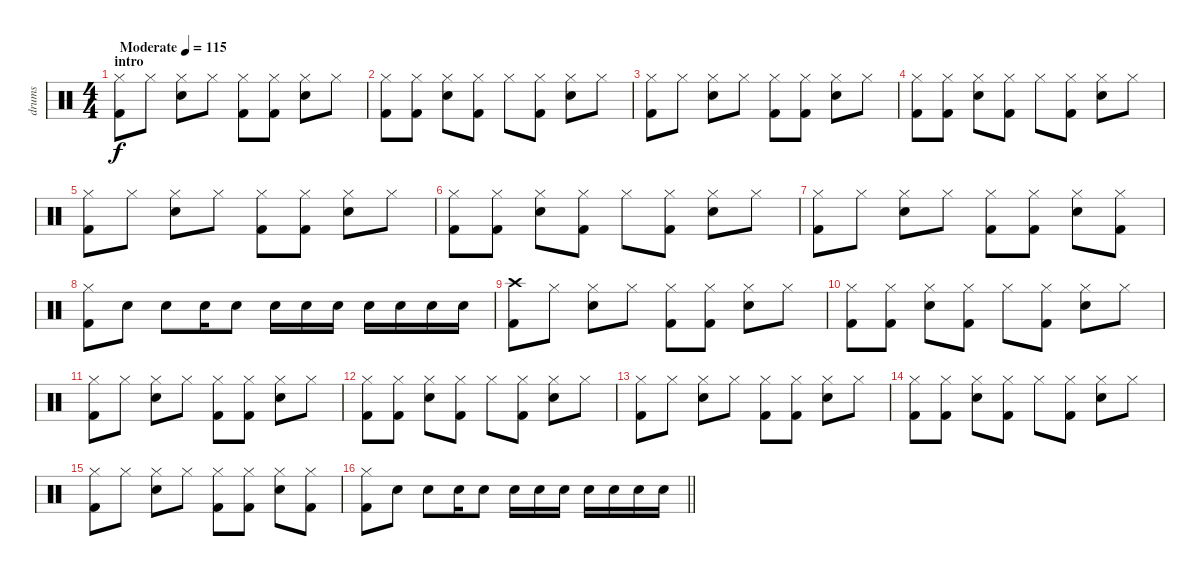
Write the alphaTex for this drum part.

\track ("drums" "drums") {instrument percussion}
\staff {score}
\articulation defaults
\ts (4 4)
\section ("" "intro")
\tempo (115 "Moderate")
\clef neutral
\ks c
("Hi-Hat (closed)" "Kick (hit) 2").8{dy f} "Hi-Hat (closed)".8 ("Hi-Hat (closed)" "Electric Snare (hit)").8 "Hi-Hat (closed)".8 ("Hi-Hat (closed)" "Kick (hit) 2").8 ("Hi-Hat (closed)" "Kick (hit) 2").8 ("Hi-Hat (closed)" "Electric Snare (hit)").8 "Hi-Hat (closed)".8 |
("Hi-Hat (closed)" "Kick (hit) 2").8 ("Hi-Hat (closed)" "Kick (hit) 2").8 ("Hi-Hat (closed)" "Electric Snare (hit)").8 ("Hi-Hat (closed)" "Kick (hit) 2").8 "Hi-Hat (closed)".8 ("Hi-Hat (closed)" "Kick (hit) 2").8 ("Hi-Hat (closed)" "Electric Snare (hit)").8 "Hi-Hat (closed)".8 |
("Hi-Hat (closed)" "Kick (hit) 2").8 "Hi-Hat (closed)".8 ("Hi-Hat (closed)" "Electric Snare (hit)").8 "Hi-Hat (closed)".8 ("Hi-Hat (closed)" "Kick (hit) 2").8 ("Hi-Hat (closed)" "Kick (hit) 2").8 ("Hi-Hat (closed)" "Electric Snare (hit)").8 "Hi-Hat (closed)".8 |
("Hi-Hat (closed)" "Kick (hit) 2").8 ("Hi-Hat (closed)" "Kick (hit) 2").8 ("Hi-Hat (closed)" "Electric Snare (hit)").8 ("Hi-Hat (closed)" "Kick (hit) 2").8 "Hi-Hat (closed)".8 ("Hi-Hat (closed)" "Kick (hit) 2").8 ("Hi-Hat (closed)" "Electric Snare (hit)").8 "Hi-Hat (closed)".8 |
("Hi-Hat (closed)" "Kick (hit) 2").8 "Hi-Hat (closed)".8 ("Hi-Hat (closed)" "Electric Snare (hit)").8 "Hi-Hat (closed)".8 ("Hi-Hat (closed)" "Kick (hit) 2").8 ("Hi-Hat (closed)" "Kick (hit) 2").8 ("Hi-Hat (closed)" "Electric Snare (hit)").8 "Hi-Hat (closed)".8 |
("Hi-Hat (closed)" "Kick (hit) 2").8 ("Hi-Hat (closed)" "Kick (hit) 2").8 ("Hi-Hat (closed)" "Electric Snare (hit)").8 ("Hi-Hat (closed)" "Kick (hit) 2").8 "Hi-Hat (closed)".8 ("Hi-Hat (closed)" "Kick (hit) 2").8 ("Hi-Hat (closed)" "Electric Snare (hit)").8 "Hi-Hat (closed)".8 |
("Hi-Hat (closed)" "Kick (hit) 2").8 "Hi-Hat (closed)".8 ("Hi-Hat (closed)" "Electric Snare (hit)").8 "Hi-Hat (closed)".8 ("Hi-Hat (closed)" "Kick (hit) 2").8 ("Hi-Hat (closed)" "Kick (hit) 2").8 ("Hi-Hat (closed)" "Electric Snare (hit)").8 ("Hi-Hat (closed)" "Kick (hit) 2").8 |
("Hi-Hat (closed)" "Kick (hit) 2").8 "Electric Snare (hit)".8 "Electric Snare (hit)".8 "Electric Snare (hit)".16 "Electric Snare (hit)".8 "Electric Snare (hit)".16 "Electric Snare (hit)".16 "Electric Snare (hit)".16 "Electric Snare (hit)".16 "Electric Snare (hit)".16 "Electric Snare (hit)".16 "Electric Snare (hit)".16 |
("Crash high (hit)" "Kick (hit) 2").8 "Hi-Hat (closed)".8 ("Hi-Hat (closed)" "Electric Snare (hit)").8 "Hi-Hat (closed)".8 ("Hi-Hat (closed)" "Kick (hit) 2").8 ("Hi-Hat (closed)" "Kick (hit) 2").8 ("Hi-Hat (closed)" "Electric Snare (hit)").8 "Hi-Hat (closed)".8 |
("Hi-Hat (closed)" "Kick (hit) 2").8 ("Hi-Hat (closed)" "Kick (hit) 2").8 ("Hi-Hat (closed)" "Electric Snare (hit)").8 ("Hi-Hat (closed)" "Kick (hit) 2").8 "Hi-Hat (closed)".8 ("Hi-Hat (closed)" "Kick (hit) 2").8 ("Hi-Hat (closed)" "Electric Snare (hit)").8 "Hi-Hat (closed)".8 |
("Hi-Hat (closed)" "Kick (hit) 2").8 "Hi-Hat (closed)".8 ("Hi-Hat (closed)" "Electric Snare (hit)").8 "Hi-Hat (closed)".8 ("Hi-Hat (closed)" "Kick (hit) 2").8 ("Hi-Hat (closed)" "Kick (hit) 2").8 ("Hi-Hat (closed)" "Electric Snare (hit)").8 "Hi-Hat (closed)".8 |
("Hi-Hat (closed)" "Kick (hit) 2").8 ("Hi-Hat (closed)" "Kick (hit) 2").8 ("Hi-Hat (closed)" "Electric Snare (hit)").8 ("Hi-Hat (closed)" "Kick (hit) 2").8 "Hi-Hat (closed)".8 ("Hi-Hat (closed)" "Kick (hit) 2").8 ("Hi-Hat (closed)" "Electric Snare (hit)").8 "Hi-Hat (closed)".8 |
("Hi-Hat (closed)" "Kick (hit) 2").8 "Hi-Hat (closed)".8 ("Hi-Hat (closed)" "Electric Snare (hit)").8 "Hi-Hat (closed)".8 ("Hi-Hat (closed)" "Kick (hit) 2").8 ("Hi-Hat (closed)" "Kick (hit) 2").8 ("Hi-Hat (closed)" "Electric Snare (hit)").8 "Hi-Hat (closed)".8 |
("Hi-Hat (closed)" "Kick (hit) 2").8 ("Hi-Hat (closed)" "Kick (hit) 2").8 ("Hi-Hat (closed)" "Electric Snare (hit)").8 ("Hi-Hat (closed)" "Kick (hit) 2").8 "Hi-Hat (closed)".8 ("Hi-Hat (closed)" "Kick (hit) 2").8 ("Hi-Hat (closed)" "Electric Snare (hit)").8 "Hi-Hat (closed)".8 |
("Hi-Hat (closed)" "Kick (hit) 2").8 "Hi-Hat (closed)".8 ("Hi-Hat (closed)" "Electric Snare (hit)").8 "Hi-Hat (closed)".8 ("Hi-Hat (closed)" "Kick (hit) 2").8 ("Hi-Hat (closed)" "Kick (hit) 2").8 ("Hi-Hat (closed)" "Electric Snare (hit)").8 ("Hi-Hat (closed)" "Kick (hit) 2").8 |
\barLineRight lightlight
("Hi-Hat (closed)" "Kick (hit) 2").8 "Electric Snare (hit)".8 "Electric Snare (hit)".8 "Electric Snare (hit)".16 "Electric Snare (hit)".8 "Electric Snare (hit)".16 "Electric Snare (hit)".16 "Electric Snare (hit)".16 "Electric Snare (hit)".16 "Electric Snare (hit)".16 "Electric Snare (hit)".16 "Electric Snare (hit)".16
